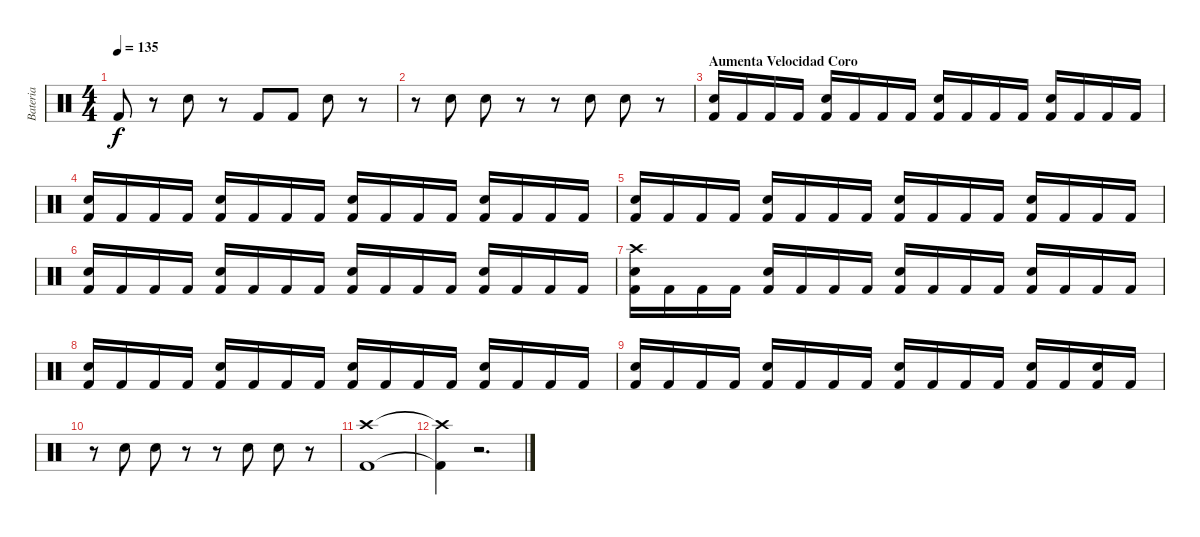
\track ("Bateria" "Bateria") {instrument percussion}
\staff {score}
\articulation defaults
\ts (4 4)
\tempo 135
\clef neutral
\ks c "Kick (hit) 2".8{dy f}
r.8 "Snare (hit) 2".8 r.8 "Kick (hit) 2".8 "Kick (hit) 2".8 "Snare (hit) 2".8 r.8 |
r.8 "Snare (hit) 2".8 "Snare (hit) 2".8 r.8 r.8 "Snare (hit) 2".8 "Snare (hit) 2".8 r.8 |
\section ("" "Aumenta Velocidad Coro")
("Snare (hit) 2" "Kick (hit) 2").16 "Kick (hit) 2".16 "Kick (hit) 2".16 "Kick (hit) 2".16 ("Snare (hit) 2" "Kick (hit) 2").16 "Kick (hit) 2".16 "Kick (hit) 2".16 "Kick (hit) 2".16 ("Snare (hit) 2" "Kick (hit) 2").16 "Kick (hit) 2".16 "Kick (hit) 2".16 "Kick (hit) 2".16 ("Snare (hit) 2" "Kick (hit) 2").16 "Kick (hit) 2".16 "Kick (hit) 2".16 "Kick (hit) 2".16 |
("Snare (hit) 2" "Kick (hit) 2").16 "Kick (hit) 2".16 "Kick (hit) 2".16 "Kick (hit) 2".16 ("Snare (hit) 2" "Kick (hit) 2").16 "Kick (hit) 2".16 "Kick (hit) 2".16 "Kick (hit) 2".16 ("Snare (hit) 2" "Kick (hit) 2").16 "Kick (hit) 2".16 "Kick (hit) 2".16 "Kick (hit) 2".16 ("Snare (hit) 2" "Kick (hit) 2").16 "Kick (hit) 2".16 "Kick (hit) 2".16 "Kick (hit) 2".16 |
("Snare (hit) 2" "Kick (hit) 2").16 "Kick (hit) 2".16 "Kick (hit) 2".16 "Kick (hit) 2".16 ("Snare (hit) 2" "Kick (hit) 2").16 "Kick (hit) 2".16 "Kick (hit) 2".16 "Kick (hit) 2".16 ("Snare (hit) 2" "Kick (hit) 2").16 "Kick (hit) 2".16 "Kick (hit) 2".16 "Kick (hit) 2".16 ("Snare (hit) 2" "Kick (hit) 2").16 "Kick (hit) 2".16 "Kick (hit) 2".16 "Kick (hit) 2".16 |
("Snare (hit) 2" "Kick (hit) 2").16 "Kick (hit) 2".16 "Kick (hit) 2".16 "Kick (hit) 2".16 ("Snare (hit) 2" "Kick (hit) 2").16 "Kick (hit) 2".16 "Kick (hit) 2".16 "Kick (hit) 2".16 ("Snare (hit) 2" "Kick (hit) 2").16 "Kick (hit) 2".16 "Kick (hit) 2".16 "Kick (hit) 2".16 ("Snare (hit) 2" "Kick (hit) 2").16 "Kick (hit) 2".16 "Kick (hit) 2".16 "Kick (hit) 2".16 |
("Crash high (hit)" "Snare (hit) 2" "Kick (hit) 2").16 "Kick (hit) 2".16 "Kick (hit) 2".16 "Kick (hit) 2".16 ("Snare (hit) 2" "Kick (hit) 2").16 "Kick (hit) 2".16 "Kick (hit) 2".16 "Kick (hit) 2".16 ("Snare (hit) 2" "Kick (hit) 2").16 "Kick (hit) 2".16 "Kick (hit) 2".16 "Kick (hit) 2".16 ("Snare (hit) 2" "Kick (hit) 2").16 "Kick (hit) 2".16 "Kick (hit) 2".16 "Kick (hit) 2".16 |
("Snare (hit) 2" "Kick (hit) 2").16 "Kick (hit) 2".16 "Kick (hit) 2".16 "Kick (hit) 2".16 ("Snare (hit) 2" "Kick (hit) 2").16 "Kick (hit) 2".16 "Kick (hit) 2".16 "Kick (hit) 2".16 ("Snare (hit) 2" "Kick (hit) 2").16 "Kick (hit) 2".16 "Kick (hit) 2".16 "Kick (hit) 2".16 ("Snare (hit) 2" "Kick (hit) 2").16 "Kick (hit) 2".16 "Kick (hit) 2".16 "Kick (hit) 2".16 |
("Snare (hit) 2" "Kick (hit) 2").16 "Kick (hit) 2".16 "Kick (hit) 2".16 "Kick (hit) 2".16 ("Snare (hit) 2" "Kick (hit) 2").16 "Kick (hit) 2".16 "Kick (hit) 2".16 "Kick (hit) 2".16 ("Snare (hit) 2" "Kick (hit) 2").16 "Kick (hit) 2".16 "Kick (hit) 2".16 "Kick (hit) 2".16 ("Snare (hit) 2" "Kick (hit) 2").16 "Kick (hit) 2".16 ("Snare (hit) 2" "Kick (hit) 2").16 "Kick (hit) 2".16 |
r.8 "Snare (hit) 2".8 "Snare (hit) 2".8 r.8 r.8 "Snare (hit) 2".8 "Snare (hit) 2".8 r.8 |
("Crash high (hit)" "Kick (hit) 2").1 |
("Crash high (hit)"{t} "Kick (hit) 2"{t}).4 r.2{d}
